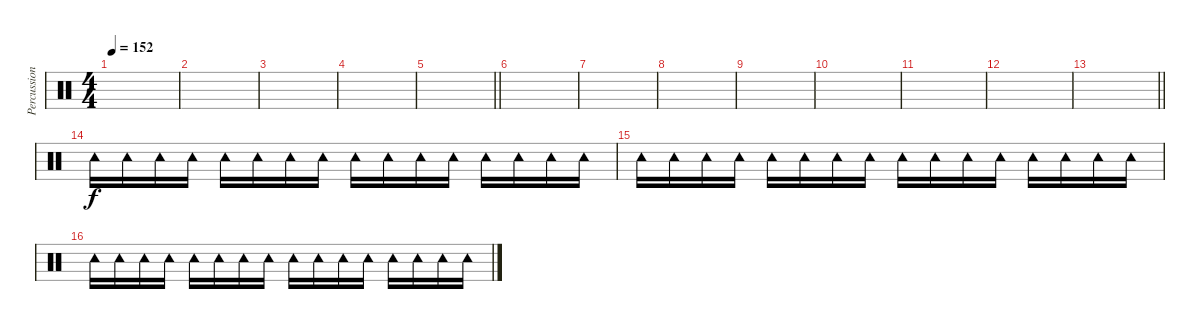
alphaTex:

\track ("Percussion" "Percussion") {instrument percussion}
\staff {score}
\articulation defaults
\ts (4 4)
\tempo 152
\clef neutral
\ks c
|
|
|
|
\barLineRight lightlight
|
\section ("" "")
|
|
|
|
|
|
|
\barLineRight lightlight
|
\section ("" "")
"Tambourine (hit)".16 "Tambourine (hit)".16 "Tambourine (hit)".16 "Tambourine (hit)".16 "Tambourine (hit)".16 "Tambourine (hit)".16 "Tambourine (hit)".16 "Tambourine (hit)".16 "Tambourine (hit)".16 "Tambourine (hit)".16 "Tambourine (hit)".16 "Tambourine (hit)".16 "Tambourine (hit)".16 "Tambourine (hit)".16 "Tambourine (hit)".16 "Tambourine (hit)".16 |
"Tambourine (hit)".16 "Tambourine (hit)".16 "Tambourine (hit)".16 "Tambourine (hit)".16 "Tambourine (hit)".16 "Tambourine (hit)".16 "Tambourine (hit)".16 "Tambourine (hit)".16 "Tambourine (hit)".16 "Tambourine (hit)".16 "Tambourine (hit)".16 "Tambourine (hit)".16 "Tambourine (hit)".16 "Tambourine (hit)".16 "Tambourine (hit)".16 "Tambourine (hit)".16 |
"Tambourine (hit)".16 "Tambourine (hit)".16 "Tambourine (hit)".16 "Tambourine (hit)".16 "Tambourine (hit)".16 "Tambourine (hit)".16 "Tambourine (hit)".16 "Tambourine (hit)".16 "Tambourine (hit)".16 "Tambourine (hit)".16 "Tambourine (hit)".16 "Tambourine (hit)".16 "Tambourine (hit)".16 "Tambourine (hit)".16 "Tambourine (hit)".16 "Tambourine (hit)".16
